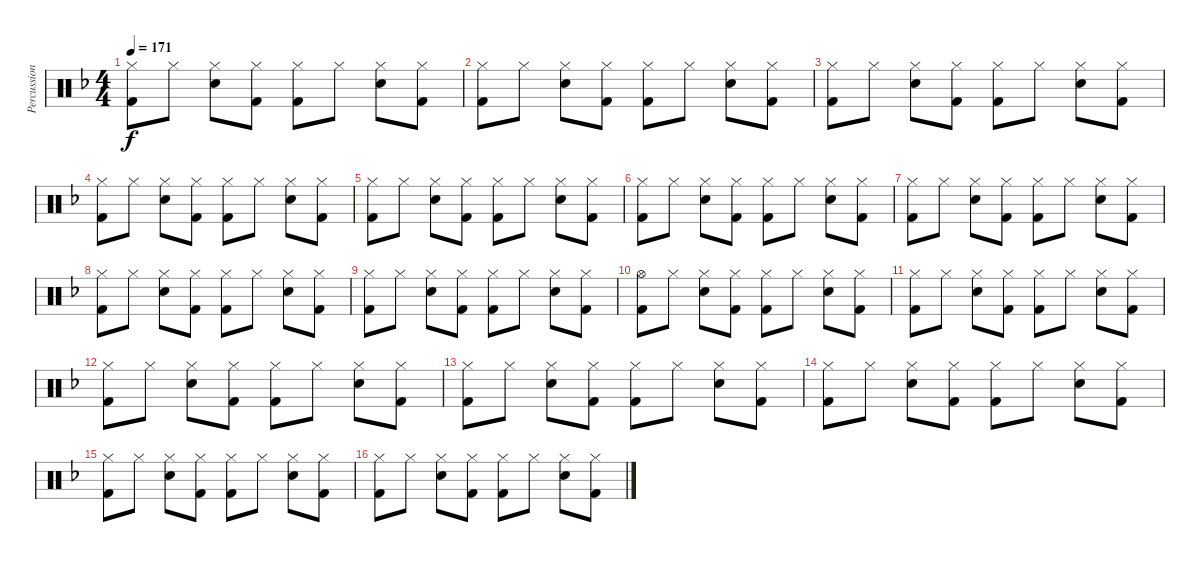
\track ("Percussion" "Percussion") {instrument percussion}
\staff {score}
\articulation defaults
\ts (4 4)
\tempo 171
\clef neutral
\ks f
("Hi-Hat (closed)" "Kick (hit) 2").8{dy f} "Hi-Hat (closed)".8 ("Hi-Hat (closed)" "Snare (hit) 2").8 ("Hi-Hat (closed)" "Kick (hit) 2").8 ("Hi-Hat (closed)" "Kick (hit) 2").8 "Hi-Hat (closed)".8 ("Hi-Hat (closed)" "Snare (hit) 2").8 ("Hi-Hat (closed)" "Kick (hit) 2").8 |
("Hi-Hat (closed)" "Kick (hit) 2").8 "Hi-Hat (closed)".8 ("Hi-Hat (closed)" "Snare (hit) 2").8 ("Hi-Hat (closed)" "Kick (hit) 2").8 ("Hi-Hat (closed)" "Kick (hit) 2").8 "Hi-Hat (closed)".8 ("Hi-Hat (closed)" "Snare (hit) 2").8 ("Hi-Hat (closed)" "Kick (hit) 2").8 |
("Hi-Hat (closed)" "Kick (hit) 2").8 "Hi-Hat (closed)".8 ("Hi-Hat (closed)" "Snare (hit) 2").8 ("Hi-Hat (closed)" "Kick (hit) 2").8 ("Hi-Hat (closed)" "Kick (hit) 2").8 "Hi-Hat (closed)".8 ("Hi-Hat (closed)" "Snare (hit) 2").8 ("Hi-Hat (closed)" "Kick (hit) 2").8 |
("Hi-Hat (closed)" "Kick (hit) 2").8 "Hi-Hat (closed)".8 ("Hi-Hat (closed)" "Snare (hit) 2").8 ("Hi-Hat (closed)" "Kick (hit) 2").8 ("Hi-Hat (closed)" "Kick (hit) 2").8 "Hi-Hat (closed)".8 ("Hi-Hat (closed)" "Snare (hit) 2").8 ("Hi-Hat (closed)" "Kick (hit) 2").8 |
("Hi-Hat (closed)" "Kick (hit) 2").8 "Hi-Hat (closed)".8 ("Hi-Hat (closed)" "Snare (hit) 2").8 ("Hi-Hat (closed)" "Kick (hit) 2").8 ("Hi-Hat (closed)" "Kick (hit) 2").8 "Hi-Hat (closed)".8 ("Hi-Hat (closed)" "Snare (hit) 2").8 ("Hi-Hat (closed)" "Kick (hit) 2").8 |
("Hi-Hat (closed)" "Kick (hit) 2").8 "Hi-Hat (closed)".8 ("Hi-Hat (closed)" "Snare (hit) 2").8 ("Hi-Hat (closed)" "Kick (hit) 2").8 ("Hi-Hat (closed)" "Kick (hit) 2").8 "Hi-Hat (closed)".8 ("Hi-Hat (closed)" "Snare (hit) 2").8 ("Hi-Hat (closed)" "Kick (hit) 2").8 |
("Hi-Hat (closed)" "Kick (hit) 2").8 "Hi-Hat (closed)".8 ("Hi-Hat (closed)" "Snare (hit) 2").8 ("Hi-Hat (closed)" "Kick (hit) 2").8 ("Hi-Hat (closed)" "Kick (hit) 2").8 "Hi-Hat (closed)".8 ("Hi-Hat (closed)" "Snare (hit) 2").8 ("Hi-Hat (closed)" "Kick (hit) 2").8 |
("Hi-Hat (closed)" "Kick (hit) 2").8 "Hi-Hat (closed)".8 ("Hi-Hat (closed)" "Snare (hit) 2").8 ("Hi-Hat (closed)" "Kick (hit) 2").8 ("Hi-Hat (closed)" "Kick (hit) 2").8 "Hi-Hat (closed)".8 ("Hi-Hat (closed)" "Snare (hit) 2").8 ("Hi-Hat (closed)" "Kick (hit) 2").8 |
("Hi-Hat (closed)" "Kick (hit) 2").8 "Hi-Hat (closed)".8 ("Hi-Hat (closed)" "Snare (hit) 2").8 ("Hi-Hat (closed)" "Kick (hit) 2").8 ("Hi-Hat (closed)" "Kick (hit) 2").8 "Hi-Hat (closed)".8 ("Hi-Hat (closed)" "Snare (hit) 2").8 ("Hi-Hat (closed)" "Kick (hit) 2").8 |
("Hi-Hat (open)" "Kick (hit) 2").8 "Hi-Hat (closed)".8 ("Hi-Hat (closed)" "Snare (hit) 2").8 ("Hi-Hat (closed)" "Kick (hit) 2").8 ("Hi-Hat (closed)" "Kick (hit) 2").8 "Hi-Hat (closed)".8 ("Hi-Hat (closed)" "Snare (hit) 2").8 ("Hi-Hat (closed)" "Kick (hit) 2").8 |
("Hi-Hat (closed)" "Kick (hit) 2").8 "Hi-Hat (closed)".8 ("Hi-Hat (closed)" "Snare (hit) 2").8 ("Hi-Hat (closed)" "Kick (hit) 2").8 ("Hi-Hat (closed)" "Kick (hit) 2").8 "Hi-Hat (closed)".8 ("Hi-Hat (closed)" "Snare (hit) 2").8 ("Hi-Hat (closed)" "Kick (hit) 2").8 |
("Hi-Hat (closed)" "Kick (hit) 2").8 "Hi-Hat (closed)".8 ("Hi-Hat (closed)" "Snare (hit) 2").8 ("Hi-Hat (closed)" "Kick (hit) 2").8 ("Hi-Hat (closed)" "Kick (hit) 2").8 "Hi-Hat (closed)".8 ("Hi-Hat (closed)" "Snare (hit) 2").8 ("Hi-Hat (closed)" "Kick (hit) 2").8 |
("Hi-Hat (closed)" "Kick (hit) 2").8 "Hi-Hat (closed)".8 ("Hi-Hat (closed)" "Snare (hit) 2").8 ("Hi-Hat (closed)" "Kick (hit) 2").8 ("Hi-Hat (closed)" "Kick (hit) 2").8 "Hi-Hat (closed)".8 ("Hi-Hat (closed)" "Snare (hit) 2").8 ("Hi-Hat (closed)" "Kick (hit) 2").8 |
("Hi-Hat (closed)" "Kick (hit) 2").8 "Hi-Hat (closed)".8 ("Hi-Hat (closed)" "Snare (hit) 2").8 ("Hi-Hat (closed)" "Kick (hit) 2").8 ("Hi-Hat (closed)" "Kick (hit) 2").8 "Hi-Hat (closed)".8 ("Hi-Hat (closed)" "Snare (hit) 2").8 ("Hi-Hat (closed)" "Kick (hit) 2").8 |
("Hi-Hat (closed)" "Kick (hit) 2").8 "Hi-Hat (closed)".8 ("Hi-Hat (closed)" "Snare (hit) 2").8 ("Hi-Hat (closed)" "Kick (hit) 2").8 ("Hi-Hat (closed)" "Kick (hit) 2").8 "Hi-Hat (closed)".8 ("Hi-Hat (closed)" "Snare (hit) 2").8 ("Hi-Hat (closed)" "Kick (hit) 2").8 |
("Hi-Hat (closed)" "Kick (hit) 2").8 "Hi-Hat (closed)".8 ("Hi-Hat (closed)" "Snare (hit) 2").8 ("Hi-Hat (closed)" "Kick (hit) 2").8 ("Hi-Hat (closed)" "Kick (hit) 2").8 "Hi-Hat (closed)".8 ("Hi-Hat (closed)" "Snare (hit) 2").8 ("Hi-Hat (closed)" "Kick (hit) 2").8
